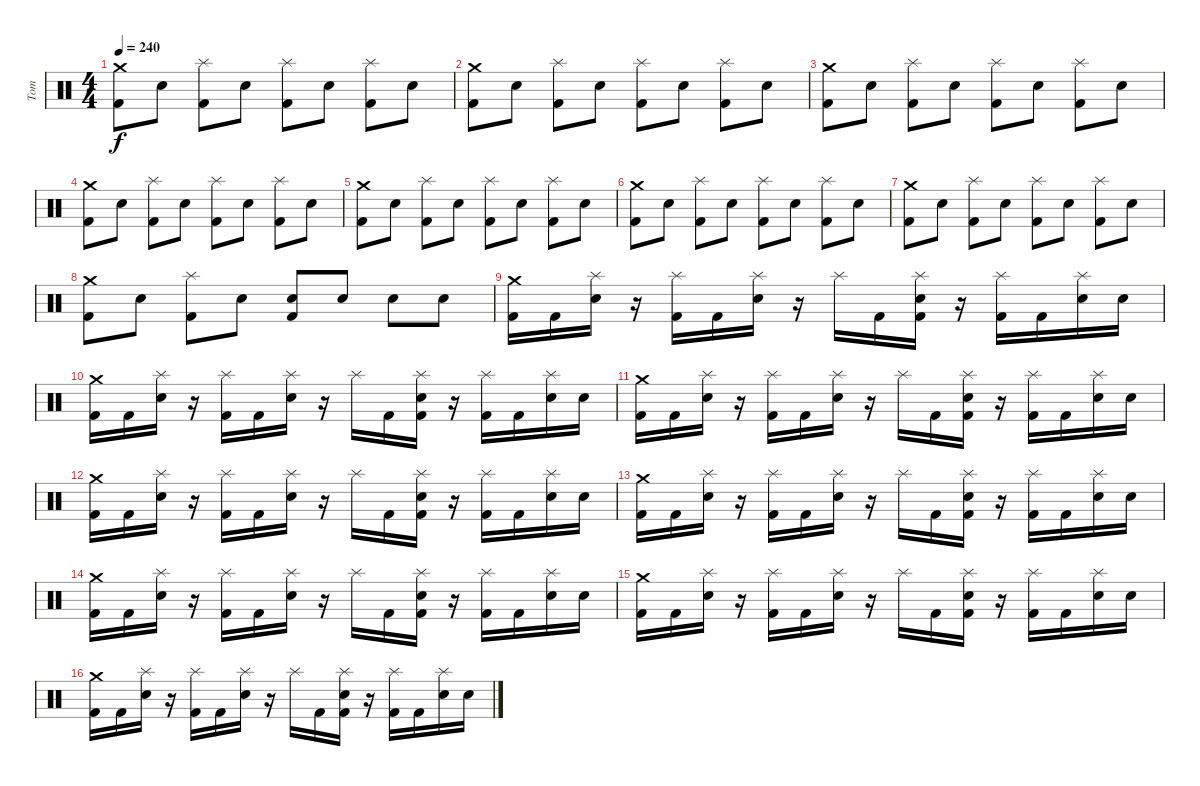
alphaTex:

\track ("Tom" "Tom") {instrument percussion}
\staff {score}
\articulation defaults
\ts (4 4)
\tempo 240
\clef neutral
\ks c
("Crash medium (hit)" "Kick (hit) 2").8{dy f} "Electric Snare (hit)".8 ("Splash (hit)" "Kick (hit) 2").8 "Electric Snare (hit)".8 ("Splash (hit)" "Kick (hit) 2").8 "Electric Snare (hit)".8 ("Splash (hit)" "Kick (hit) 2").8 "Electric Snare (hit)".8 |
("Crash medium (hit)" "Kick (hit) 2").8 "Electric Snare (hit)".8 ("Splash (hit)" "Kick (hit) 2").8 "Electric Snare (hit)".8 ("Splash (hit)" "Kick (hit) 2").8 "Electric Snare (hit)".8 ("Splash (hit)" "Kick (hit) 2").8 "Electric Snare (hit)".8 |
("Crash medium (hit)" "Kick (hit) 2").8 "Electric Snare (hit)".8 ("Splash (hit)" "Kick (hit) 2").8 "Electric Snare (hit)".8 ("Splash (hit)" "Kick (hit) 2").8 "Electric Snare (hit)".8 ("Splash (hit)" "Kick (hit) 2").8 "Electric Snare (hit)".8 |
("Crash medium (hit)" "Kick (hit) 2").8 "Electric Snare (hit)".8 ("Splash (hit)" "Kick (hit) 2").8 "Electric Snare (hit)".8 ("Splash (hit)" "Kick (hit) 2").8 "Electric Snare (hit)".8 ("Splash (hit)" "Kick (hit) 2").8 "Electric Snare (hit)".8 |
("Crash medium (hit)" "Kick (hit) 2").8 "Electric Snare (hit)".8 ("Splash (hit)" "Kick (hit) 2").8 "Electric Snare (hit)".8 ("Splash (hit)" "Kick (hit) 2").8 "Electric Snare (hit)".8 ("Splash (hit)" "Kick (hit) 2").8 "Electric Snare (hit)".8 |
("Crash medium (hit)" "Kick (hit) 2").8 "Electric Snare (hit)".8 ("Splash (hit)" "Kick (hit) 2").8 "Electric Snare (hit)".8 ("Splash (hit)" "Kick (hit) 2").8 "Electric Snare (hit)".8 ("Splash (hit)" "Kick (hit) 2").8 "Electric Snare (hit)".8 |
("Crash medium (hit)" "Kick (hit) 2").8 "Electric Snare (hit)".8 ("Splash (hit)" "Kick (hit) 2").8 "Electric Snare (hit)".8 ("Splash (hit)" "Kick (hit) 2").8 "Electric Snare (hit)".8 ("Splash (hit)" "Kick (hit) 2").8 "Electric Snare (hit)".8 |
("Crash medium (hit)" "Kick (hit) 2").8 "Electric Snare (hit)".8 ("Splash (hit)" "Kick (hit) 2").8 "Electric Snare (hit)".8 ("Electric Snare (hit)" "Kick (hit) 2").8 "Electric Snare (hit)".8 "Electric Snare (hit)".8 "Electric Snare (hit)".8 |
("Crash medium (hit)" "Kick (hit) 2").16 "Kick (hit) 2".16 ("Splash (hit)" "Electric Snare (hit)").16 r.16 ("Splash (hit)" "Kick (hit) 2").16 "Kick (hit) 2".16 ("Splash (hit)" "Electric Snare (hit)").16 r.16 "Splash (hit)".16 "Kick (hit) 2".16 ("Splash (hit)" "Electric Snare (hit)" "Kick (hit) 2").16 r.16 ("Splash (hit)" "Kick (hit) 2").16 "Kick (hit) 2".16 ("Splash (hit)" "Electric Snare (hit)").16 "Electric Snare (hit)".16 |
("Crash medium (hit)" "Kick (hit) 2").16 "Kick (hit) 2".16 ("Splash (hit)" "Electric Snare (hit)").16 r.16 ("Splash (hit)" "Kick (hit) 2").16 "Kick (hit) 2".16 ("Splash (hit)" "Electric Snare (hit)").16 r.16 "Splash (hit)".16 "Kick (hit) 2".16 ("Splash (hit)" "Electric Snare (hit)" "Kick (hit) 2").16 r.16 ("Splash (hit)" "Kick (hit) 2").16 "Kick (hit) 2".16 ("Splash (hit)" "Electric Snare (hit)").16 "Electric Snare (hit)".16 |
("Crash medium (hit)" "Kick (hit) 2").16 "Kick (hit) 2".16 ("Splash (hit)" "Electric Snare (hit)").16 r.16 ("Splash (hit)" "Kick (hit) 2").16 "Kick (hit) 2".16 ("Splash (hit)" "Electric Snare (hit)").16 r.16 "Splash (hit)".16 "Kick (hit) 2".16 ("Splash (hit)" "Electric Snare (hit)" "Kick (hit) 2").16 r.16 ("Splash (hit)" "Kick (hit) 2").16 "Kick (hit) 2".16 ("Splash (hit)" "Electric Snare (hit)").16 "Electric Snare (hit)".16 |
("Crash medium (hit)" "Kick (hit) 2").16 "Kick (hit) 2".16 ("Splash (hit)" "Electric Snare (hit)").16 r.16 ("Splash (hit)" "Kick (hit) 2").16 "Kick (hit) 2".16 ("Splash (hit)" "Electric Snare (hit)").16 r.16 "Splash (hit)".16 "Kick (hit) 2".16 ("Splash (hit)" "Electric Snare (hit)" "Kick (hit) 2").16 r.16 ("Splash (hit)" "Kick (hit) 2").16 "Kick (hit) 2".16 ("Splash (hit)" "Electric Snare (hit)").16 "Electric Snare (hit)".16 |
("Crash medium (hit)" "Kick (hit) 2").16 "Kick (hit) 2".16 ("Splash (hit)" "Electric Snare (hit)").16 r.16 ("Splash (hit)" "Kick (hit) 2").16 "Kick (hit) 2".16 ("Splash (hit)" "Electric Snare (hit)").16 r.16 "Splash (hit)".16 "Kick (hit) 2".16 ("Splash (hit)" "Electric Snare (hit)" "Kick (hit) 2").16 r.16 ("Splash (hit)" "Kick (hit) 2").16 "Kick (hit) 2".16 ("Splash (hit)" "Electric Snare (hit)").16 "Electric Snare (hit)".16 |
("Crash medium (hit)" "Kick (hit) 2").16 "Kick (hit) 2".16 ("Splash (hit)" "Electric Snare (hit)").16 r.16 ("Splash (hit)" "Kick (hit) 2").16 "Kick (hit) 2".16 ("Splash (hit)" "Electric Snare (hit)").16 r.16 "Splash (hit)".16 "Kick (hit) 2".16 ("Splash (hit)" "Electric Snare (hit)" "Kick (hit) 2").16 r.16 ("Splash (hit)" "Kick (hit) 2").16 "Kick (hit) 2".16 ("Splash (hit)" "Electric Snare (hit)").16 "Electric Snare (hit)".16 |
("Crash medium (hit)" "Kick (hit) 2").16 "Kick (hit) 2".16 ("Splash (hit)" "Electric Snare (hit)").16 r.16 ("Splash (hit)" "Kick (hit) 2").16 "Kick (hit) 2".16 ("Splash (hit)" "Electric Snare (hit)").16 r.16 "Splash (hit)".16 "Kick (hit) 2".16 ("Splash (hit)" "Electric Snare (hit)" "Kick (hit) 2").16 r.16 ("Splash (hit)" "Kick (hit) 2").16 "Kick (hit) 2".16 ("Splash (hit)" "Electric Snare (hit)").16 "Electric Snare (hit)".16 |
("Crash medium (hit)" "Kick (hit) 2").16 "Kick (hit) 2".16 ("Splash (hit)" "Electric Snare (hit)").16 r.16 ("Splash (hit)" "Kick (hit) 2").16 "Kick (hit) 2".16 ("Splash (hit)" "Electric Snare (hit)").16 r.16 "Splash (hit)".16 "Kick (hit) 2".16 ("Splash (hit)" "Electric Snare (hit)" "Kick (hit) 2").16 r.16 ("Splash (hit)" "Kick (hit) 2").16 "Kick (hit) 2".16 ("Splash (hit)" "Electric Snare (hit)").16 "Electric Snare (hit)".16
